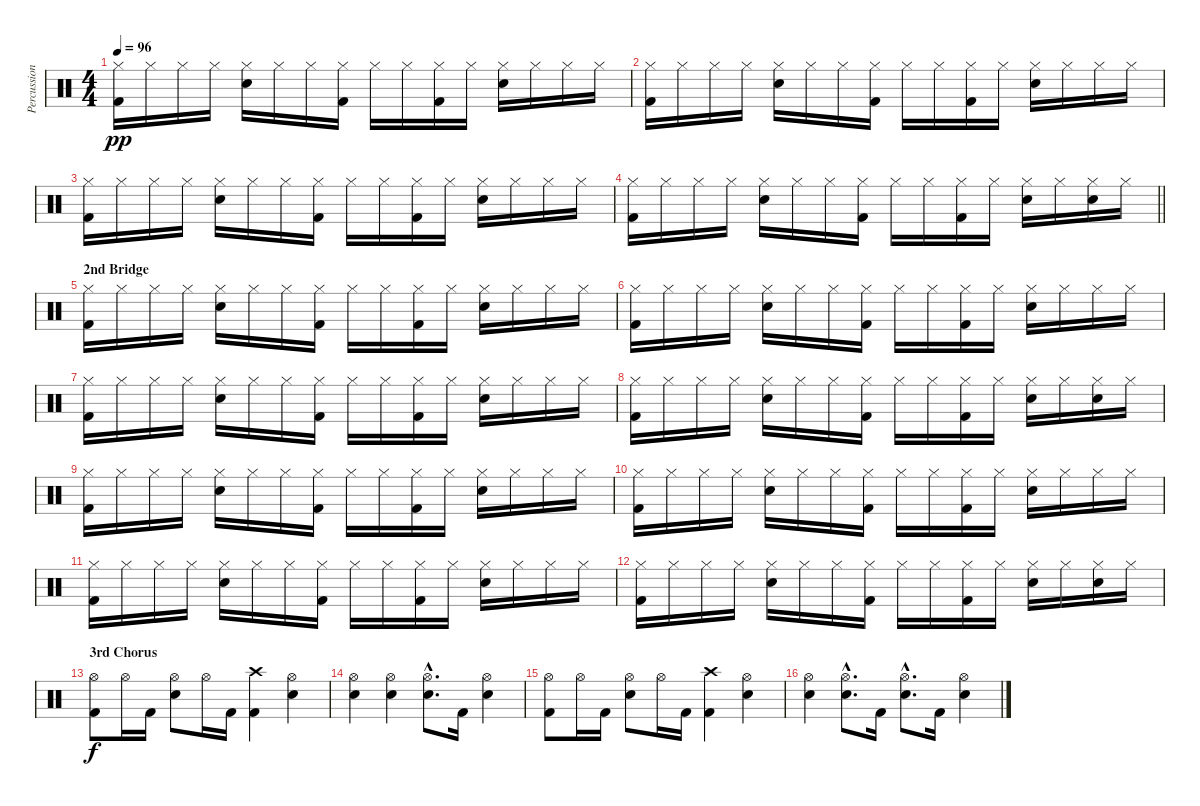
\track ("Percussion" "Percussion") {instrument percussion}
\staff {score}
\articulation defaults
\ts (4 4)
\tempo 96
\clef neutral
\ks c
("Hi-Hat (closed)" "Kick (hit) 2").16{dy pp} "Hi-Hat (closed)".16 "Hi-Hat (closed)".16 "Hi-Hat (closed)".16 ("Hi-Hat (closed)" "Snare (hit) 2").16 "Hi-Hat (closed)".16 "Hi-Hat (closed)".16 ("Hi-Hat (closed)" "Kick (hit) 2").16 "Hi-Hat (closed)".16 "Hi-Hat (closed)".16 ("Hi-Hat (closed)" "Kick (hit) 2").16 "Hi-Hat (closed)".16 ("Hi-Hat (closed)" "Snare (hit) 2").16 "Hi-Hat (closed)".16 "Hi-Hat (closed)".16 "Hi-Hat (closed)".16 |
("Hi-Hat (closed)" "Kick (hit) 2").16 "Hi-Hat (closed)".16 "Hi-Hat (closed)".16 "Hi-Hat (closed)".16 ("Hi-Hat (closed)" "Snare (hit) 2").16 "Hi-Hat (closed)".16 "Hi-Hat (closed)".16 ("Hi-Hat (closed)" "Kick (hit) 2").16 "Hi-Hat (closed)".16 "Hi-Hat (closed)".16 ("Hi-Hat (closed)" "Kick (hit) 2").16 "Hi-Hat (closed)".16 ("Hi-Hat (closed)" "Snare (hit) 2").16 "Hi-Hat (closed)".16 "Hi-Hat (closed)".16 "Hi-Hat (closed)".16 |
("Hi-Hat (closed)" "Kick (hit) 2").16 "Hi-Hat (closed)".16 "Hi-Hat (closed)".16 "Hi-Hat (closed)".16 ("Hi-Hat (closed)" "Snare (hit) 2").16 "Hi-Hat (closed)".16 "Hi-Hat (closed)".16 ("Hi-Hat (closed)" "Kick (hit) 2").16 "Hi-Hat (closed)".16 "Hi-Hat (closed)".16 ("Hi-Hat (closed)" "Kick (hit) 2").16 "Hi-Hat (closed)".16 ("Hi-Hat (closed)" "Snare (hit) 2").16 "Hi-Hat (closed)".16 "Hi-Hat (closed)".16 "Hi-Hat (closed)".16 |
\barLineRight lightlight
("Hi-Hat (closed)" "Kick (hit) 2").16 "Hi-Hat (closed)".16 "Hi-Hat (closed)".16 "Hi-Hat (closed)".16 ("Hi-Hat (closed)" "Snare (hit) 2").16 "Hi-Hat (closed)".16 "Hi-Hat (closed)".16 ("Hi-Hat (closed)" "Kick (hit) 2").16 "Hi-Hat (closed)".16 "Hi-Hat (closed)".16 ("Hi-Hat (closed)" "Kick (hit) 2").16 "Hi-Hat (closed)".16 ("Hi-Hat (closed)" "Snare (hit) 2").16 "Hi-Hat (closed)".16 ("Hi-Hat (closed)" "Snare (hit) 2").16 "Hi-Hat (closed)".16 |
\section ("" "2nd Bridge")
("Hi-Hat (closed)" "Kick (hit) 2").16 "Hi-Hat (closed)".16 "Hi-Hat (closed)".16 "Hi-Hat (closed)".16 ("Hi-Hat (closed)" "Snare (hit) 2").16 "Hi-Hat (closed)".16 "Hi-Hat (closed)".16 ("Hi-Hat (closed)" "Kick (hit) 2").16 "Hi-Hat (closed)".16 "Hi-Hat (closed)".16 ("Hi-Hat (closed)" "Kick (hit) 2").16 "Hi-Hat (closed)".16 ("Hi-Hat (closed)" "Snare (hit) 2").16 "Hi-Hat (closed)".16 "Hi-Hat (closed)".16 "Hi-Hat (closed)".16 |
("Hi-Hat (closed)" "Kick (hit) 2").16 "Hi-Hat (closed)".16 "Hi-Hat (closed)".16 "Hi-Hat (closed)".16 ("Hi-Hat (closed)" "Snare (hit) 2").16 "Hi-Hat (closed)".16 "Hi-Hat (closed)".16 ("Hi-Hat (closed)" "Kick (hit) 2").16 "Hi-Hat (closed)".16 "Hi-Hat (closed)".16 ("Hi-Hat (closed)" "Kick (hit) 2").16 "Hi-Hat (closed)".16 ("Hi-Hat (closed)" "Snare (hit) 2").16 "Hi-Hat (closed)".16 "Hi-Hat (closed)".16 "Hi-Hat (closed)".16 |
("Hi-Hat (closed)" "Kick (hit) 2").16 "Hi-Hat (closed)".16 "Hi-Hat (closed)".16 "Hi-Hat (closed)".16 ("Hi-Hat (closed)" "Snare (hit) 2").16 "Hi-Hat (closed)".16 "Hi-Hat (closed)".16 ("Hi-Hat (closed)" "Kick (hit) 2").16 "Hi-Hat (closed)".16 "Hi-Hat (closed)".16 ("Hi-Hat (closed)" "Kick (hit) 2").16 "Hi-Hat (closed)".16 ("Hi-Hat (closed)" "Snare (hit) 2").16 "Hi-Hat (closed)".16 "Hi-Hat (closed)".16 "Hi-Hat (closed)".16 |
("Hi-Hat (closed)" "Kick (hit) 2").16 "Hi-Hat (closed)".16 "Hi-Hat (closed)".16 "Hi-Hat (closed)".16 ("Hi-Hat (closed)" "Snare (hit) 2").16 "Hi-Hat (closed)".16 "Hi-Hat (closed)".16 ("Hi-Hat (closed)" "Kick (hit) 2").16 "Hi-Hat (closed)".16 "Hi-Hat (closed)".16 ("Hi-Hat (closed)" "Kick (hit) 2").16 "Hi-Hat (closed)".16 ("Hi-Hat (closed)" "Snare (hit) 2").16 "Hi-Hat (closed)".16 ("Hi-Hat (closed)" "Snare (hit) 2").16 "Hi-Hat (closed)".16 |
("Hi-Hat (closed)" "Kick (hit) 2").16 "Hi-Hat (closed)".16 "Hi-Hat (closed)".16 "Hi-Hat (closed)".16 ("Hi-Hat (closed)" "Snare (hit) 2").16 "Hi-Hat (closed)".16 "Hi-Hat (closed)".16 ("Hi-Hat (closed)" "Kick (hit) 2").16 "Hi-Hat (closed)".16 "Hi-Hat (closed)".16 ("Hi-Hat (closed)" "Kick (hit) 2").16 "Hi-Hat (closed)".16 ("Hi-Hat (closed)" "Snare (hit) 2").16 "Hi-Hat (closed)".16 "Hi-Hat (closed)".16 "Hi-Hat (closed)".16 |
("Hi-Hat (closed)" "Kick (hit) 2").16 "Hi-Hat (closed)".16 "Hi-Hat (closed)".16 "Hi-Hat (closed)".16 ("Hi-Hat (closed)" "Snare (hit) 2").16 "Hi-Hat (closed)".16 "Hi-Hat (closed)".16 ("Hi-Hat (closed)" "Kick (hit) 2").16 "Hi-Hat (closed)".16 "Hi-Hat (closed)".16 ("Hi-Hat (closed)" "Kick (hit) 2").16 "Hi-Hat (closed)".16 ("Hi-Hat (closed)" "Snare (hit) 2").16 "Hi-Hat (closed)".16 "Hi-Hat (closed)".16 "Hi-Hat (closed)".16 |
("Hi-Hat (closed)" "Kick (hit) 2").16 "Hi-Hat (closed)".16 "Hi-Hat (closed)".16 "Hi-Hat (closed)".16 ("Hi-Hat (closed)" "Snare (hit) 2").16 "Hi-Hat (closed)".16 "Hi-Hat (closed)".16 ("Hi-Hat (closed)" "Kick (hit) 2").16 "Hi-Hat (closed)".16 "Hi-Hat (closed)".16 ("Hi-Hat (closed)" "Kick (hit) 2").16 "Hi-Hat (closed)".16 ("Hi-Hat (closed)" "Snare (hit) 2").16 "Hi-Hat (closed)".16 "Hi-Hat (closed)".16 "Hi-Hat (closed)".16 |
("Hi-Hat (closed)" "Kick (hit) 2").16 "Hi-Hat (closed)".16 "Hi-Hat (closed)".16 "Hi-Hat (closed)".16 ("Hi-Hat (closed)" "Snare (hit) 2").16 "Hi-Hat (closed)".16 "Hi-Hat (closed)".16 ("Hi-Hat (closed)" "Kick (hit) 2").16 "Hi-Hat (closed)".16 "Hi-Hat (closed)".16 ("Hi-Hat (closed)" "Kick (hit) 2").16 "Hi-Hat (closed)".16 ("Hi-Hat (closed)" "Snare (hit) 2").16 "Hi-Hat (closed)".16 ("Hi-Hat (closed)" "Snare (hit) 2").16 "Hi-Hat (closed)".16 |
\section ("" "3rd Chorus")
("Hi-Hat (open)" "Kick (hit) 2").8{dy f} "Hi-Hat (open)".16 "Kick (hit) 2".16 ("Hi-Hat (open)" "Snare (hit) 2").8 "Hi-Hat (open)".16 "Kick (hit) 2".16 ("Crash high (hit)" "Kick (hit) 2").4 ("Hi-Hat (open)" "Snare (hit) 2").4 |
("Hi-Hat (open)" "Snare (hit) 2").4 ("Hi-Hat (open)" "Snare (hit) 2").4 ("Hi-Hat (open)"{hac} "Snare (hit) 2"{hac}).8{d} "Kick (hit) 2".16 ("Hi-Hat (open)" "Snare (hit) 2").4 |
("Hi-Hat (open)" "Kick (hit) 2").8 "Hi-Hat (open)".16 "Kick (hit) 2".16 ("Hi-Hat (open)" "Snare (hit) 2").8 "Hi-Hat (open)".16 "Kick (hit) 2".16 ("Crash high (hit)" "Kick (hit) 2").4 ("Hi-Hat (open)" "Snare (hit) 2").4 |
("Hi-Hat (open)" "Snare (hit) 2").4 ("Hi-Hat (open)"{hac} "Snare (hit) 2"{hac}).8{d} "Kick (hit) 2".16 ("Hi-Hat (open)"{hac} "Snare (hit) 2"{hac}).8{d} "Kick (hit) 2".16 ("Hi-Hat (open)" "Snare (hit) 2").4
